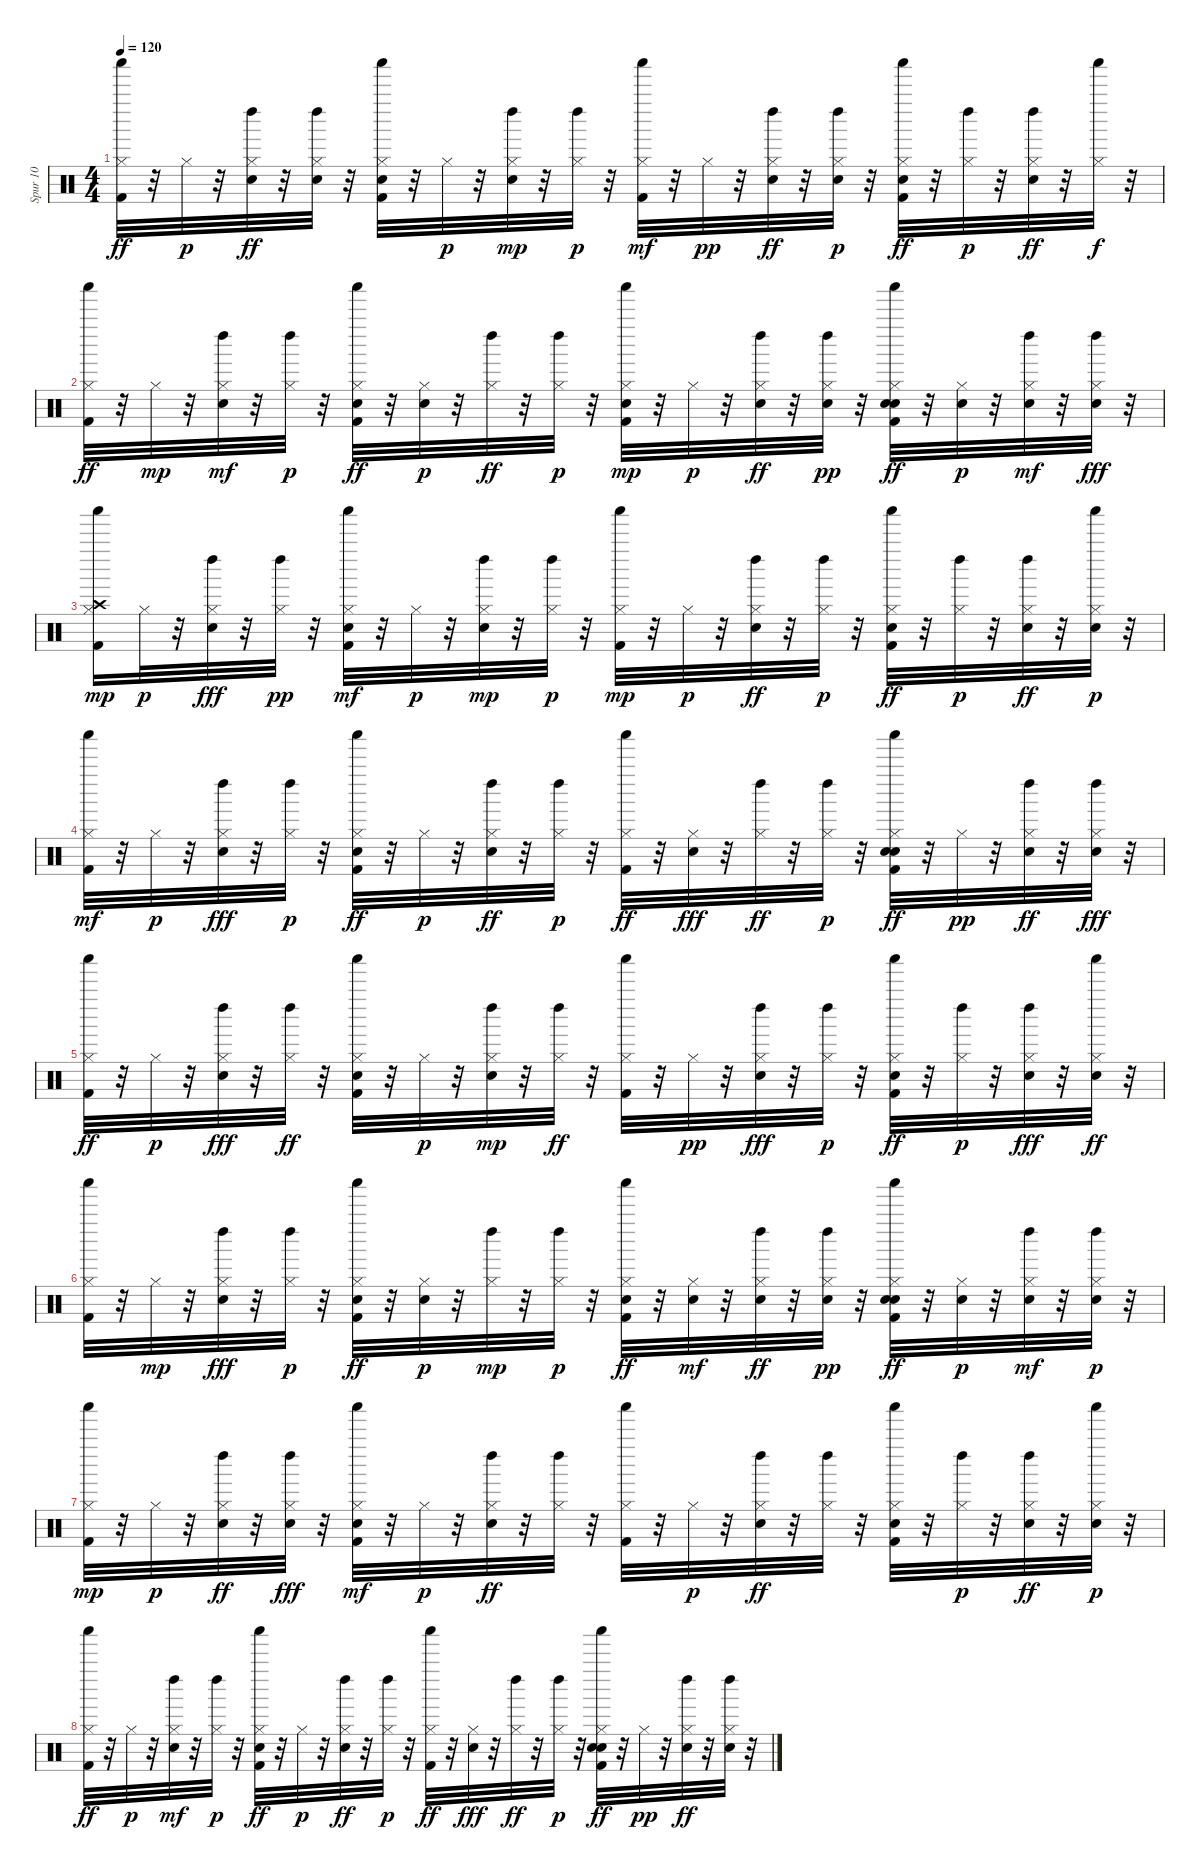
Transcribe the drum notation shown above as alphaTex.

\track ("Spur 10" "Spur 10") {instrument percussion}
\staff {score}
\articulation defaults
\ts (4 4)
\tempo 120
\clef neutral
\ks c
("Hi-Hat (closed)" "Kick (hit) 2" "Shaker (hit)").32{dy ff} r.32 "Hi-Hat (closed)".32{dy p} r.32 ("Electric Snare (hit)" "Left Maraca (hit)" "Hi-Hat (closed)").32{dy ff} r.32 ("Left Maraca (hit)" "Hi-Hat (closed)" "Electric Snare (hit)").32 r.32 ("Snare (hit) 2" "Hi-Hat (closed)" "Shaker (hit)" "Kick (hit) 2").32 r.32 "Hi-Hat (closed)".32{dy p} r.32 ("Electric Snare (hit)" "Hi-Hat (closed)" "Left Maraca (hit)").32{dy mp} r.32 ("Left Maraca (hit)" "Hi-Hat (closed)").32{dy p} r.32 ("Shaker (hit)" "Kick (hit) 2" "Hi-Hat (closed)").32{dy mf} r.32 "Hi-Hat (closed)".32{dy pp} r.32 ("Electric Snare (hit)" "Hi-Hat (closed)" "Left Maraca (hit)").32{dy ff} r.32 ("Electric Snare (hit)" "Left Maraca (hit)" "Hi-Hat (closed)").32{dy p} r.32 ("Hi-Hat (closed)" "Kick (hit) 2" "Shaker (hit)" "Snare (hit) 2").32{dy ff} r.32 ("Hi-Hat (closed)" "Left Maraca (hit)").32{dy p} r.32 ("Left Maraca (hit)" "Electric Snare (hit)" "Hi-Hat (closed)").32{dy ff} r.32 ("Shaker (hit)" "Hi-Hat (closed)").32{dy f} r.32 |
("Shaker (hit)" "Kick (hit) 2" "Hi-Hat (closed)").32{dy ff} r.32 "Hi-Hat (closed)".32{dy mp} r.32 ("Hi-Hat (closed)" "Electric Snare (hit)" "Left Maraca (hit)").32{dy mf} r.32 ("Hi-Hat (closed)" "Left Maraca (hit)").32{dy p} r.32 ("Kick (hit) 2" "Hi-Hat (closed)" "Shaker (hit)" "Snare (hit) 2").32{dy ff} r.32 ("Electric Snare (hit)" "Hi-Hat (closed)").32{dy p} r.32 ("Left Maraca (hit)" "Hi-Hat (closed)").32{dy ff} r.32 ("Left Maraca (hit)" "Hi-Hat (closed)").32{dy p} r.32 ("Shaker (hit)" "Electric Snare (hit)" "Kick (hit) 2" "Hi-Hat (closed)").32{dy mp} r.32 "Hi-Hat (closed)".32{dy p} r.32 ("Electric Snare (hit)" "Left Maraca (hit)" "Hi-Hat (closed)").32{dy ff} r.32 ("Left Maraca (hit)" "Electric Snare (hit)" "Hi-Hat (closed)").32{dy pp} r.32 ("Hi-Hat (closed)" "Electric Snare (hit)" "Snare (hit) 2" "Kick (hit) 2" "Shaker (hit)").32{dy ff} r.32 ("Electric Snare (hit)" "Hi-Hat (closed)").32{dy p} r.32 ("Electric Snare (hit)" "Hi-Hat (closed)" "Left Maraca (hit)").32{dy mf} r.32 ("Hi-Hat (closed)" "Left Maraca (hit)" "Electric Snare (hit)").32{dy fff} r.32 |
("Kick (hit) 2" "Shaker (hit)" "Crash high (hit)" "Hi-Hat (closed)").16{dy mp} "Hi-Hat (closed)".32{dy p} r.32 ("Hi-Hat (closed)" "Electric Snare (hit)" "Left Maraca (hit)").32{dy fff} r.32 ("Left Maraca (hit)" "Hi-Hat (closed)").32{dy pp} r.32 ("Shaker (hit)" "Snare (hit) 2" "Kick (hit) 2" "Hi-Hat (closed)").32{dy mf} r.32 "Hi-Hat (closed)".32{dy p} r.32 ("Electric Snare (hit)" "Hi-Hat (closed)" "Left Maraca (hit)").32{dy mp} r.32 ("Left Maraca (hit)" "Hi-Hat (closed)").32{dy p} r.32 ("Kick (hit) 2" "Hi-Hat (closed)" "Shaker (hit)").32{dy mp} r.32 "Hi-Hat (closed)".32{dy p} r.32 ("Left Maraca (hit)" "Electric Snare (hit)" "Hi-Hat (closed)").32{dy ff} r.32 ("Left Maraca (hit)" "Hi-Hat (closed)").32{dy p} r.32 ("Hi-Hat (closed)" "Shaker (hit)" "Snare (hit) 2" "Kick (hit) 2").32{dy ff} r.32 ("Hi-Hat (closed)" "Left Maraca (hit)").32{dy p} r.32 ("Electric Snare (hit)" "Left Maraca (hit)" "Hi-Hat (closed)").32{dy ff} r.32 ("Shaker (hit)" "Electric Snare (hit)" "Hi-Hat (closed)").32{dy p} r.32 |
("Shaker (hit)" "Kick (hit) 2" "Hi-Hat (closed)").32{dy mf} r.32 "Hi-Hat (closed)".32{dy p} r.32 ("Hi-Hat (closed)" "Left Maraca (hit)" "Electric Snare (hit)").32{dy fff} r.32 ("Left Maraca (hit)" "Hi-Hat (closed)").32{dy p} r.32 ("Shaker (hit)" "Snare (hit) 2" "Kick (hit) 2" "Hi-Hat (closed)").32{dy ff} r.32 "Hi-Hat (closed)".32{dy p} r.32 ("Electric Snare (hit)" "Left Maraca (hit)" "Hi-Hat (closed)").32{dy ff} r.32 ("Left Maraca (hit)" "Hi-Hat (closed)").32{dy p} r.32 ("Shaker (hit)" "Hi-Hat (closed)" "Kick (hit) 2").32{dy ff} r.32 ("Hi-Hat (closed)" "Electric Snare (hit)").32{dy fff} r.32 ("Hi-Hat (closed)" "Left Maraca (hit)").32{dy ff} r.32 ("Left Maraca (hit)" "Hi-Hat (closed)").32{dy p} r.32 ("Shaker (hit)" "Hi-Hat (closed)" "Electric Snare (hit)" "Snare (hit) 2" "Kick (hit) 2").32{dy ff} r.32 "Hi-Hat (closed)".32{dy pp} r.32 ("Electric Snare (hit)" "Left Maraca (hit)" "Hi-Hat (closed)").32{dy ff} r.32 ("Hi-Hat (closed)" "Left Maraca (hit)" "Electric Snare (hit)").32{dy fff} r.32 |
("Shaker (hit)" "Hi-Hat (closed)" "Kick (hit) 2").32{dy ff} r.32 "Hi-Hat (closed)".32{dy p} r.32 ("Hi-Hat (closed)" "Electric Snare (hit)" "Left Maraca (hit)").32{dy fff} r.32 ("Hi-Hat (closed)" "Left Maraca (hit)").32{dy ff} r.32 ("Snare (hit) 2" "Kick (hit) 2" "Hi-Hat (closed)" "Shaker (hit)").32 r.32 "Hi-Hat (closed)".32{dy p} r.32 ("Electric Snare (hit)" "Hi-Hat (closed)" "Left Maraca (hit)").32{dy mp} r.32 ("Hi-Hat (closed)" "Left Maraca (hit)").32{dy ff} r.32 ("Hi-Hat (closed)" "Shaker (hit)" "Kick (hit) 2").32 r.32 "Hi-Hat (closed)".32{dy pp} r.32 ("Hi-Hat (closed)" "Electric Snare (hit)" "Left Maraca (hit)").32{dy fff} r.32 ("Left Maraca (hit)" "Hi-Hat (closed)").32{dy p} r.32 ("Hi-Hat (closed)" "Snare (hit) 2" "Shaker (hit)" "Kick (hit) 2").32{dy ff} r.32 ("Hi-Hat (closed)" "Left Maraca (hit)").32{dy p} r.32 ("Hi-Hat (closed)" "Left Maraca (hit)" "Electric Snare (hit)").32{dy fff} r.32 ("Shaker (hit)" "Hi-Hat (closed)" "Electric Snare (hit)").32{dy ff} r.32 |
("Kick (hit) 2" "Shaker (hit)" "Hi-Hat (closed)").32 r.32 "Hi-Hat (closed)".32{dy mp} r.32 ("Hi-Hat (closed)" "Left Maraca (hit)" "Electric Snare (hit)").32{dy fff} r.32 ("Left Maraca (hit)" "Hi-Hat (closed)").32{dy p} r.32 ("Kick (hit) 2" "Hi-Hat (closed)" "Snare (hit) 2" "Shaker (hit)").32{dy ff} r.32 ("Electric Snare (hit)" "Hi-Hat (closed)").32{dy p} r.32 ("Hi-Hat (closed)" "Left Maraca (hit)").32{dy mp} r.32 ("Left Maraca (hit)" "Hi-Hat (closed)").32{dy p} r.32 ("Electric Snare (hit)" "Shaker (hit)" "Hi-Hat (closed)" "Kick (hit) 2").32{dy ff} r.32 ("Hi-Hat (closed)" "Electric Snare (hit)").32{dy mf} r.32 ("Electric Snare (hit)" "Hi-Hat (closed)" "Left Maraca (hit)").32{dy ff} r.32 ("Electric Snare (hit)" "Hi-Hat (closed)" "Left Maraca (hit)").32{dy pp} r.32 ("Shaker (hit)" "Electric Snare (hit)" "Snare (hit) 2" "Hi-Hat (closed)" "Kick (hit) 2").32{dy ff} r.32 ("Electric Snare (hit)" "Hi-Hat (closed)").32{dy p} r.32 ("Electric Snare (hit)" "Hi-Hat (closed)" "Left Maraca (hit)").32{dy mf} r.32 ("Left Maraca (hit)" "Electric Snare (hit)" "Hi-Hat (closed)").32{dy p} r.32 |
("Kick (hit) 2" "Hi-Hat (closed)" "Shaker (hit)").32{dy mp} r.32 "Hi-Hat (closed)".32{dy p} r.32 ("Hi-Hat (closed)" "Left Maraca (hit)" "Electric Snare (hit)").32{dy ff} r.32 ("Left Maraca (hit)" "Hi-Hat (closed)" "Electric Snare (hit)").32{dy fff} r.32 ("Snare (hit) 2" "Kick (hit) 2" "Hi-Hat (closed)" "Shaker (hit)").32{dy mf} r.32 "Hi-Hat (closed)".32{dy p} r.32 ("Electric Snare (hit)" "Left Maraca (hit)" "Hi-Hat (closed)").32{dy ff} r.32 ("Hi-Hat (closed)" "Left Maraca (hit)").32 r.32 ("Shaker (hit)" "Hi-Hat (closed)" "Kick (hit) 2").32 r.32 "Hi-Hat (closed)".32{dy p} r.32 ("Electric Snare (hit)" "Hi-Hat (closed)" "Left Maraca (hit)").32{dy ff} r.32 ("Hi-Hat (closed)" "Left Maraca (hit)").32 r.32 ("Hi-Hat (closed)" "Kick (hit) 2" "Snare (hit) 2" "Shaker (hit)").32 r.32 ("Hi-Hat (closed)" "Left Maraca (hit)").32{dy p} r.32 ("Left Maraca (hit)" "Electric Snare (hit)" "Hi-Hat (closed)").32{dy ff} r.32 ("Electric Snare (hit)" "Hi-Hat (closed)" "Shaker (hit)").32{dy p} r.32 |
("Hi-Hat (closed)" "Shaker (hit)" "Kick (hit) 2").32{dy ff} r.32 "Hi-Hat (closed)".32{dy p} r.32 ("Electric Snare (hit)" "Hi-Hat (closed)" "Left Maraca (hit)").32{dy mf} r.32 ("Left Maraca (hit)" "Hi-Hat (closed)").32{dy p} r.32 ("Snare (hit) 2" "Shaker (hit)" "Kick (hit) 2" "Hi-Hat (closed)").32{dy ff} r.32 "Hi-Hat (closed)".32{dy p} r.32 ("Left Maraca (hit)" "Electric Snare (hit)" "Hi-Hat (closed)").32{dy ff} r.32 ("Left Maraca (hit)" "Hi-Hat (closed)").32{dy p} r.32 ("Kick (hit) 2" "Hi-Hat (closed)" "Shaker (hit)").32{dy ff} r.32 ("Hi-Hat (closed)" "Electric Snare (hit)").32{dy fff} r.32 ("Left Maraca (hit)" "Hi-Hat (closed)").32{dy ff} r.32 ("Left Maraca (hit)" "Hi-Hat (closed)").32{dy p} r.32 ("Snare (hit) 2" "Electric Snare (hit)" "Shaker (hit)" "Kick (hit) 2" "Hi-Hat (closed)").32{dy ff} r.32 "Hi-Hat (closed)".32{dy pp} r.32 ("Electric Snare (hit)" "Left Maraca (hit)" "Hi-Hat (closed)").32{dy ff} r.32 ("Left Maraca (hit)" "Hi-Hat (closed)" "Electric Snare (hit)").32 r.32
